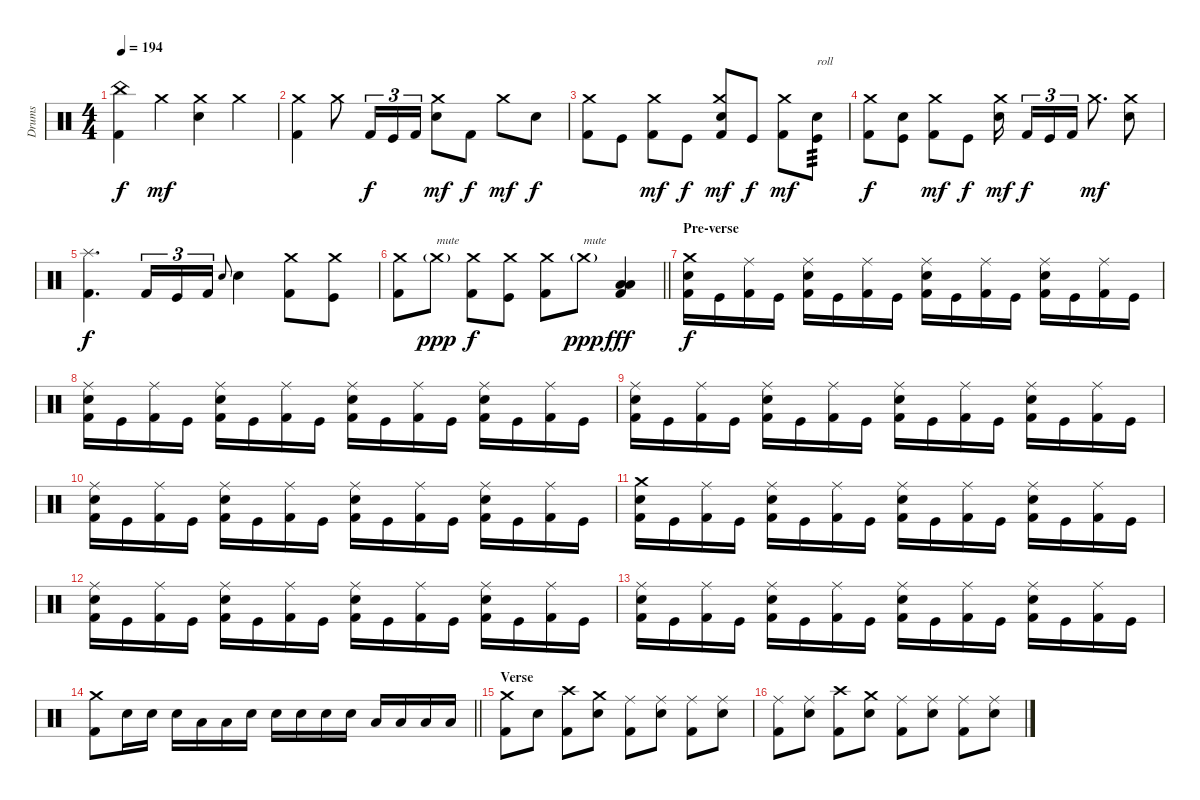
\track ("Drums" "Drums") {instrument percussion}
\staff {score}
\articulation defaults
\ts (4 4)
\tempo 194
\clef neutral
\ks c
("China (hit)" "Kick (hit) 2").4{dy f} "Crash medium (hit)".4{dy mf} ("Crash medium (hit)" "Snare (hit) 2").4 "Crash medium (hit)".4 |
("Crash medium (hit)" "Kick (hit) 2").4 "Crash medium (hit)".8 "Kick (hit) 2".16{tu (3 2) dy f} "Kick (hit)".16{tu (3 2)} "Kick (hit) 2".16{tu (3 2)} ("Crash medium (hit)" "Snare (hit) 2").8{dy mf} "Kick (hit) 2".8{dy f} "Crash medium (hit)".8{dy mf} "Snare (hit) 2".8{dy f} |
("Crash medium (hit)" "Kick (hit) 2").8 "Kick (hit)".8 ("Crash medium (hit)" "Kick (hit) 2").8{dy mf} "Kick (hit)".8{dy f} ("Crash medium (hit)" "Snare (hit) 2" "Kick (hit) 2").8{dy mf} "Kick (hit)".8{dy f} ("Crash medium (hit)" "Kick (hit) 2").8{dy mf} ("Snare (hit) 2" "Kick (hit)").8{txt "roll" tp 3} |
("Crash medium (hit)" "Kick (hit) 2").8{dy f} ("Snare (hit) 2" "Kick (hit)").8 ("Crash medium (hit)" "Kick (hit) 2").8{dy mf} "Kick (hit)".8{dy f} ("Crash medium (hit)" "Snare (hit) 2").16{dy mf beam splitsecondary} "Kick (hit) 2".16{tu (3 2) dy f} "Kick (hit)".16{tu (3 2)} "Kick (hit) 2".16{tu (3 2)} "Crash medium (hit)".8{d dy mf} ("Crash medium (hit)" "Snare (hit) 2").8 |
("Splash (hit)" "Kick (hit) 2").4{d dy f} "Kick (hit) 2".16{tu (3 2)} "Kick (hit)".16{tu (3 2)} "Kick (hit) 2".16{tu (3 2)} "Snare (hit) 2".8{gr onbeat} "Snare (hit) 2".4 ("Crash medium (hit)" "Kick (hit) 2").8 ("Crash medium (hit)" "Kick (hit)").8 |
\barLineRight lightlight
("Crash medium (hit)" "Kick (hit) 2").8 "Crash medium (hit)"{g}.8{txt "mute" dy ppp} ("Crash medium (hit)" "Kick (hit) 2").8{dy f} ("Crash medium (hit)" "Kick (hit)").8 ("Crash medium (hit)" "Kick (hit) 2").8 "Crash medium (hit)"{g}.8{txt "mute" dy ppp} ("Low Tom (hit)" "Low Tom (hit)" "Kick (hit) 2").4{dy fff} |
\section ("" "Pre-verse")
("Crash medium (hit)" "Snare (hit) 2" "Kick (hit) 2").16{dy f} "Kick (hit)".16 ("Ride (middle)" "Kick (hit) 2").16 "Kick (hit)".16 ("Ride (middle)" "Snare (hit) 2" "Kick (hit) 2").16 "Kick (hit)".16 ("Ride (middle)" "Kick (hit) 2").16 "Kick (hit)".16 ("Ride (middle)" "Snare (hit) 2" "Kick (hit) 2").16 "Kick (hit)".16 ("Ride (middle)" "Kick (hit) 2").16 "Kick (hit)".16 ("Ride (middle)" "Snare (hit) 2" "Kick (hit) 2").16 "Kick (hit)".16 ("Ride (middle)" "Kick (hit) 2").16 "Kick (hit)".16 |
("Ride (middle)" "Snare (hit) 2" "Kick (hit) 2").16 "Kick (hit)".16 ("Ride (middle)" "Kick (hit) 2").16 "Kick (hit)".16 ("Ride (middle)" "Snare (hit) 2" "Kick (hit) 2").16 "Kick (hit)".16 ("Ride (middle)" "Kick (hit) 2").16 "Kick (hit)".16 ("Ride (middle)" "Snare (hit) 2" "Kick (hit) 2").16 "Kick (hit)".16 ("Ride (middle)" "Kick (hit) 2").16 "Kick (hit)".16 ("Ride (middle)" "Snare (hit) 2" "Kick (hit) 2").16 "Kick (hit)".16 ("Ride (middle)" "Kick (hit) 2").16 "Kick (hit)".16 |
("Ride (middle)" "Snare (hit) 2" "Kick (hit) 2").16 "Kick (hit)".16 ("Ride (middle)" "Kick (hit) 2").16 "Kick (hit)".16 ("Ride (middle)" "Snare (hit) 2" "Kick (hit) 2").16 "Kick (hit)".16 ("Ride (middle)" "Kick (hit) 2").16 "Kick (hit)".16 ("Ride (middle)" "Snare (hit) 2" "Kick (hit) 2").16 "Kick (hit)".16 ("Ride (middle)" "Kick (hit) 2").16 "Kick (hit)".16 ("Ride (middle)" "Snare (hit) 2" "Kick (hit) 2").16 "Kick (hit)".16 ("Ride (middle)" "Kick (hit) 2").16 "Kick (hit)".16 |
("Ride (middle)" "Snare (hit) 2" "Kick (hit) 2").16 "Kick (hit)".16 ("Ride (middle)" "Kick (hit) 2").16 "Kick (hit)".16 ("Ride (middle)" "Snare (hit) 2" "Kick (hit) 2").16 "Kick (hit)".16 ("Ride (middle)" "Kick (hit) 2").16 "Kick (hit)".16 ("Ride (middle)" "Snare (hit) 2" "Kick (hit) 2").16 "Kick (hit)".16 ("Ride (middle)" "Kick (hit) 2").16 "Kick (hit)".16 ("Ride (middle)" "Snare (hit) 2" "Kick (hit) 2").16 "Kick (hit)".16 ("Ride (middle)" "Kick (hit) 2").16 "Kick (hit)".16 |
("Crash medium (hit)" "Snare (hit) 2" "Kick (hit) 2").16 "Kick (hit)".16 ("Ride (middle)" "Kick (hit) 2").16 "Kick (hit)".16 ("Ride (middle)" "Snare (hit) 2" "Kick (hit) 2").16 "Kick (hit)".16 ("Ride (middle)" "Kick (hit) 2").16 "Kick (hit)".16 ("Ride (middle)" "Snare (hit) 2" "Kick (hit) 2").16 "Kick (hit)".16 ("Ride (middle)" "Kick (hit) 2").16 "Kick (hit)".16 ("Ride (middle)" "Snare (hit) 2" "Kick (hit) 2").16 "Kick (hit)".16 ("Ride (middle)" "Kick (hit) 2").16 "Kick (hit)".16 |
("Ride (middle)" "Snare (hit) 2" "Kick (hit) 2").16 "Kick (hit)".16 ("Ride (middle)" "Kick (hit) 2").16 "Kick (hit)".16 ("Ride (middle)" "Snare (hit) 2" "Kick (hit) 2").16 "Kick (hit)".16 ("Ride (middle)" "Kick (hit) 2").16 "Kick (hit)".16 ("Ride (middle)" "Snare (hit) 2" "Kick (hit) 2").16 "Kick (hit)".16 ("Ride (middle)" "Kick (hit) 2").16 "Kick (hit)".16 ("Ride (middle)" "Snare (hit) 2" "Kick (hit) 2").16 "Kick (hit)".16 ("Ride (middle)" "Kick (hit) 2").16 "Kick (hit)".16 |
("Ride (middle)" "Snare (hit) 2" "Kick (hit) 2").16 "Kick (hit)".16 ("Ride (middle)" "Kick (hit) 2").16 "Kick (hit)".16 ("Ride (middle)" "Snare (hit) 2" "Kick (hit) 2").16 "Kick (hit)".16 ("Ride (middle)" "Kick (hit) 2").16 "Kick (hit)".16 ("Ride (middle)" "Snare (hit) 2" "Kick (hit) 2").16 "Kick (hit)".16 ("Ride (middle)" "Kick (hit) 2").16 "Kick (hit)".16 ("Ride (middle)" "Snare (hit) 2" "Kick (hit) 2").16 "Kick (hit)".16 ("Ride (middle)" "Kick (hit) 2").16 "Kick (hit)".16 |
\barLineRight lightlight
("Crash medium (hit)" "Kick (hit) 2").8 "Snare (hit) 2".16 "Snare (hit) 2".16 "Snare (hit) 2".16 "Low Tom (hit)".16 "Low Tom (hit)".16 "Snare (hit) 2".16 "Snare (hit) 2".16 "Snare (hit) 2".16 "Snare (hit) 2".16 "Snare (hit) 2".16 "Low Tom (hit)".16 "Low Tom (hit)".16 "Low Tom (hit)".16 "Low Tom (hit)".16 |
\section ("" "Verse")
("Crash medium (hit)" "Kick (hit) 2").8 "Snare (hit) 2".8 ("Crash high (hit)" "Kick (hit) 2").8 ("Crash medium (hit)" "Snare (hit) 2").8 ("Ride (middle)" "Kick (hit) 2").8 ("Ride (middle)" "Snare (hit) 2").8 ("Ride (middle)" "Kick (hit) 2").8 ("Ride (middle)" "Snare (hit) 2").8 |
("Ride (middle)" "Kick (hit) 2").8 ("Ride (middle)" "Snare (hit) 2").8 ("Crash high (hit)" "Kick (hit) 2").8 ("Crash medium (hit)" "Snare (hit) 2").8 ("Ride (middle)" "Kick (hit) 2").8 ("Ride (middle)" "Snare (hit) 2").8 ("Ride (middle)" "Kick (hit) 2").8 ("Ride (middle)" "Snare (hit) 2").8
